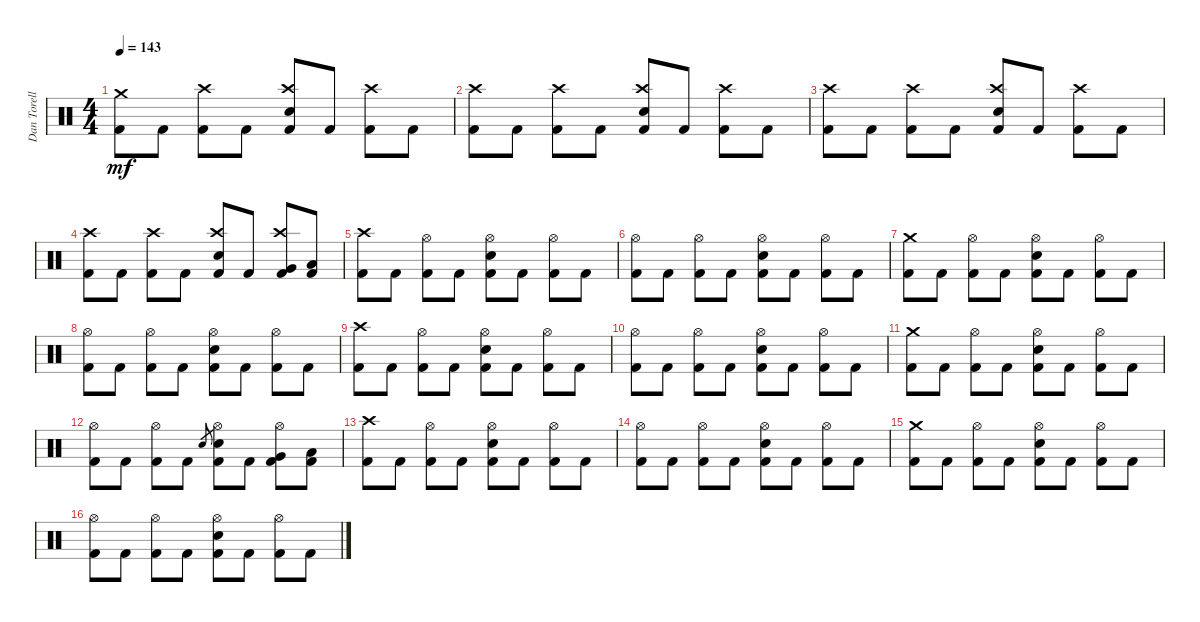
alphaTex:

\track ("Dan Torelli" "Dan Torell") {instrument percussion}
\staff {score}
\articulation defaults
\ts (4 4)
\tempo 143
\clef neutral
\ks c
("Crash medium (hit)" "Kick (hit) 2").8{dy mf} "Kick (hit) 2".8 ("Crash high (hit)" "Kick (hit) 2").8 "Kick (hit) 2".8 ("Crash high (hit)" "Snare (hit) 2" "Kick (hit) 2").8 "Kick (hit) 2".8 ("Crash high (hit)" "Kick (hit) 2").8 "Kick (hit) 2".8 |
("Crash high (hit)" "Kick (hit) 2").8 "Kick (hit) 2".8 ("Crash high (hit)" "Kick (hit) 2").8 "Kick (hit) 2".8 ("Crash high (hit)" "Snare (hit) 2" "Kick (hit) 2").8 "Kick (hit) 2".8 ("Crash high (hit)" "Kick (hit) 2").8 "Kick (hit) 2".8 |
("Crash high (hit)" "Kick (hit) 2").8 "Kick (hit) 2".8 ("Crash high (hit)" "Kick (hit) 2").8 "Kick (hit) 2".8 ("Crash high (hit)" "Snare (hit) 2" "Kick (hit) 2").8 "Kick (hit) 2".8 ("Crash high (hit)" "Kick (hit) 2").8 "Kick (hit) 2".8 |
("Crash high (hit)" "Kick (hit) 2").8 "Kick (hit) 2".8 ("Crash high (hit)" "Kick (hit) 2").8 "Kick (hit) 2".8 ("Crash high (hit)" "Snare (hit) 2" "Kick (hit) 2").8 "Kick (hit) 2".8 ("Crash high (hit)" "Very Low Tom (hit)" "Kick (hit) 2").8 ("Low Floor Tom (hit)" "Kick (hit) 2").8 |
("Crash high (hit)" "Kick (hit) 2").8 "Kick (hit) 2".8 ("Hi-Hat (open)" "Kick (hit) 2").8 "Kick (hit) 2".8 ("Hi-Hat (open)" "Snare (hit) 2" "Kick (hit) 2").8 "Kick (hit) 2".8 ("Hi-Hat (open)" "Kick (hit) 2").8 "Kick (hit) 2".8 |
("Hi-Hat (open)" "Kick (hit) 2").8 "Kick (hit) 2".8 ("Hi-Hat (open)" "Kick (hit) 2").8 "Kick (hit) 2".8 ("Hi-Hat (open)" "Snare (hit) 2" "Kick (hit) 2").8 "Kick (hit) 2".8 ("Hi-Hat (open)" "Kick (hit) 2").8 "Kick (hit) 2".8 |
("Crash medium (hit)" "Kick (hit) 2").8 "Kick (hit) 2".8 ("Hi-Hat (open)" "Kick (hit) 2").8 "Kick (hit) 2".8 ("Hi-Hat (open)" "Snare (hit) 2" "Kick (hit) 2").8 "Kick (hit) 2".8 ("Hi-Hat (open)" "Kick (hit) 2").8 "Kick (hit) 2".8 |
("Hi-Hat (open)" "Kick (hit) 2").8 "Kick (hit) 2".8 ("Hi-Hat (open)" "Kick (hit) 2").8 "Kick (hit) 2".8 ("Hi-Hat (open)" "Snare (hit) 2" "Kick (hit) 2").8 "Kick (hit) 2".8 ("Hi-Hat (open)" "Kick (hit) 2").8 "Kick (hit) 2".8 |
("Crash high (hit)" "Kick (hit) 2").8 "Kick (hit) 2".8 ("Hi-Hat (open)" "Kick (hit) 2").8 "Kick (hit) 2".8 ("Hi-Hat (open)" "Snare (hit) 2" "Kick (hit) 2").8 "Kick (hit) 2".8 ("Hi-Hat (open)" "Kick (hit) 2").8 "Kick (hit) 2".8 |
("Hi-Hat (open)" "Kick (hit) 2").8 "Kick (hit) 2".8 ("Hi-Hat (open)" "Kick (hit) 2").8 "Kick (hit) 2".8 ("Hi-Hat (open)" "Snare (hit) 2" "Kick (hit) 2").8 "Kick (hit) 2".8 ("Hi-Hat (open)" "Kick (hit) 2").8 "Kick (hit) 2".8 |
("Crash medium (hit)" "Kick (hit) 2").8 "Kick (hit) 2".8 ("Hi-Hat (open)" "Kick (hit) 2").8 "Kick (hit) 2".8 ("Hi-Hat (open)" "Snare (hit) 2" "Kick (hit) 2").8 "Kick (hit) 2".8 ("Hi-Hat (open)" "Kick (hit) 2").8 "Kick (hit) 2".8 |
("Hi-Hat (open)" "Kick (hit) 2").8 "Kick (hit) 2".8 ("Hi-Hat (open)" "Kick (hit) 2").8 "Kick (hit) 2".8 "Snare (hit) 2".8{gr} ("Hi-Hat (open)" "Snare (hit) 2" "Kick (hit) 2").8 "Kick (hit) 2".8 ("Hi-Hat (open)" "Very Low Tom (hit)" "Kick (hit) 2").8 ("Low Floor Tom (hit)" "Kick (hit) 2").8 |
("Crash high (hit)" "Kick (hit) 2").8 "Kick (hit) 2".8 ("Hi-Hat (open)" "Kick (hit) 2").8 "Kick (hit) 2".8 ("Hi-Hat (open)" "Snare (hit) 2" "Kick (hit) 2").8 "Kick (hit) 2".8 ("Hi-Hat (open)" "Kick (hit) 2").8 "Kick (hit) 2".8 |
("Hi-Hat (open)" "Kick (hit) 2").8 "Kick (hit) 2".8 ("Hi-Hat (open)" "Kick (hit) 2").8 "Kick (hit) 2".8 ("Hi-Hat (open)" "Snare (hit) 2" "Kick (hit) 2").8 "Kick (hit) 2".8 ("Hi-Hat (open)" "Kick (hit) 2").8 "Kick (hit) 2".8 |
("Crash medium (hit)" "Kick (hit) 2").8 "Kick (hit) 2".8 ("Hi-Hat (open)" "Kick (hit) 2").8 "Kick (hit) 2".8 ("Hi-Hat (open)" "Snare (hit) 2" "Kick (hit) 2").8 "Kick (hit) 2".8 ("Hi-Hat (open)" "Kick (hit) 2").8 "Kick (hit) 2".8 |
("Hi-Hat (open)" "Kick (hit) 2").8 "Kick (hit) 2".8 ("Hi-Hat (open)" "Kick (hit) 2").8 "Kick (hit) 2".8 ("Hi-Hat (open)" "Snare (hit) 2" "Kick (hit) 2").8 "Kick (hit) 2".8 ("Hi-Hat (open)" "Kick (hit) 2").8 "Kick (hit) 2".8
